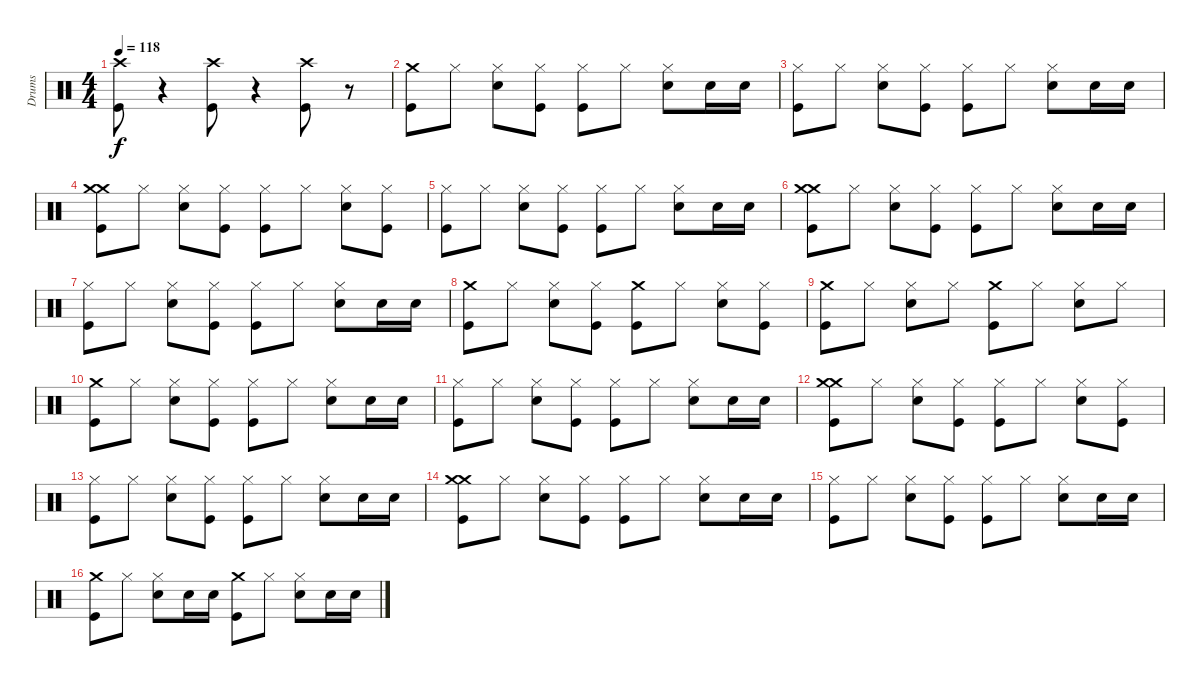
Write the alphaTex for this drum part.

\track ("Drums" "Drums") {instrument percussion}
\staff {score}
\articulation defaults
\ts (4 4)
\tempo 118
\clef neutral
\ks c
("Kick (hit)" "Crash high (hit)").8{dy f} r.4 ("Kick (hit)" "Crash high (hit)").8 r.4 ("Kick (hit)" "Crash high (hit)").8 r.8 |
("Kick (hit)" "Crash medium (hit)").8 "Hi-Hat (closed)".8 ("Snare (hit) 2" "Hi-Hat (closed)").8 ("Kick (hit)" "Hi-Hat (closed)").8 ("Kick (hit)" "Hi-Hat (closed)").8 "Hi-Hat (closed)".8 ("Snare (hit) 2" "Hi-Hat (closed)").8 "Snare (hit) 2".16 "Snare (hit) 2".16 |
("Kick (hit)" "Hi-Hat (closed)").8 "Hi-Hat (closed)".8 ("Snare (hit) 2" "Hi-Hat (closed)").8 ("Kick (hit)" "Hi-Hat (closed)").8 ("Kick (hit)" "Hi-Hat (closed)").8 "Hi-Hat (closed)".8 ("Snare (hit) 2" "Hi-Hat (closed)").8 "Snare (hit) 2".16 "Snare (hit) 2".16 |
("Kick (hit)" "Crash medium (hit)" "Crash medium (hit)").8 "Hi-Hat (closed)".8 ("Snare (hit) 2" "Hi-Hat (closed)").8 ("Kick (hit)" "Hi-Hat (closed)").8 ("Kick (hit)" "Hi-Hat (closed)").8 "Hi-Hat (closed)".8 ("Snare (hit) 2" "Hi-Hat (closed)").8 ("Kick (hit)" "Hi-Hat (closed)").8 |
("Kick (hit)" "Hi-Hat (closed)").8 "Hi-Hat (closed)".8 ("Snare (hit) 2" "Hi-Hat (closed)").8 ("Kick (hit)" "Hi-Hat (closed)").8 ("Kick (hit)" "Hi-Hat (closed)").8 "Hi-Hat (closed)".8 ("Snare (hit) 2" "Hi-Hat (closed)").8 "Snare (hit) 2".16 "Snare (hit) 2".16 |
("Kick (hit)" "Crash medium (hit)" "Crash medium (hit)").8 "Hi-Hat (closed)".8 ("Snare (hit) 2" "Hi-Hat (closed)").8 ("Kick (hit)" "Hi-Hat (closed)").8 ("Kick (hit)" "Hi-Hat (closed)").8 "Hi-Hat (closed)".8 ("Snare (hit) 2" "Hi-Hat (closed)").8 "Snare (hit) 2".16 "Snare (hit) 2".16 |
("Kick (hit)" "Hi-Hat (closed)").8 "Hi-Hat (closed)".8 ("Snare (hit) 2" "Hi-Hat (closed)").8 ("Kick (hit)" "Hi-Hat (closed)").8 ("Kick (hit)" "Hi-Hat (closed)").8 "Hi-Hat (closed)".8 ("Snare (hit) 2" "Hi-Hat (closed)").8 "Snare (hit) 2".16 "Snare (hit) 2".16 |
("Kick (hit)" "Crash medium (hit)").8 "Hi-Hat (closed)".8 ("Snare (hit) 2" "Hi-Hat (closed)").8 ("Kick (hit)" "Hi-Hat (closed)").8 ("Kick (hit)" "Crash medium (hit)").8 "Hi-Hat (closed)".8 ("Snare (hit) 2" "Hi-Hat (closed)").8 ("Kick (hit)" "Hi-Hat (closed)").8 |
("Kick (hit)" "Crash medium (hit)").8 "Hi-Hat (closed)".8 ("Snare (hit) 2" "Hi-Hat (closed)").8 "Hi-Hat (closed)".8 ("Kick (hit)" "Crash medium (hit)").8 "Hi-Hat (closed)".8 ("Snare (hit) 2" "Hi-Hat (closed)").8 "Hi-Hat (closed)".8 |
("Kick (hit)" "Crash medium (hit)").8 "Hi-Hat (closed)".8 ("Snare (hit) 2" "Hi-Hat (closed)").8 ("Kick (hit)" "Hi-Hat (closed)").8 ("Kick (hit)" "Hi-Hat (closed)").8 "Hi-Hat (closed)".8 ("Snare (hit) 2" "Hi-Hat (closed)").8 "Snare (hit) 2".16 "Snare (hit) 2".16 |
("Kick (hit)" "Hi-Hat (closed)").8 "Hi-Hat (closed)".8 ("Snare (hit) 2" "Hi-Hat (closed)").8 ("Kick (hit)" "Hi-Hat (closed)").8 ("Kick (hit)" "Hi-Hat (closed)").8 "Hi-Hat (closed)".8 ("Snare (hit) 2" "Hi-Hat (closed)").8 "Snare (hit) 2".16 "Snare (hit) 2".16 |
("Kick (hit)" "Crash medium (hit)" "Crash medium (hit)").8 "Hi-Hat (closed)".8 ("Snare (hit) 2" "Hi-Hat (closed)").8 ("Kick (hit)" "Hi-Hat (closed)").8 ("Kick (hit)" "Hi-Hat (closed)").8 "Hi-Hat (closed)".8 ("Snare (hit) 2" "Hi-Hat (closed)").8 ("Kick (hit)" "Hi-Hat (closed)").8 |
("Kick (hit)" "Hi-Hat (closed)").8 "Hi-Hat (closed)".8 ("Snare (hit) 2" "Hi-Hat (closed)").8 ("Kick (hit)" "Hi-Hat (closed)").8 ("Kick (hit)" "Hi-Hat (closed)").8 "Hi-Hat (closed)".8 ("Snare (hit) 2" "Hi-Hat (closed)").8 "Snare (hit) 2".16 "Snare (hit) 2".16 |
("Kick (hit)" "Crash medium (hit)" "Crash medium (hit)").8 "Hi-Hat (closed)".8 ("Snare (hit) 2" "Hi-Hat (closed)").8 ("Kick (hit)" "Hi-Hat (closed)").8 ("Kick (hit)" "Hi-Hat (closed)").8 "Hi-Hat (closed)".8 ("Snare (hit) 2" "Hi-Hat (closed)").8 "Snare (hit) 2".16 "Snare (hit) 2".16 |
("Kick (hit)" "Hi-Hat (closed)").8 "Hi-Hat (closed)".8 ("Snare (hit) 2" "Hi-Hat (closed)").8 ("Kick (hit)" "Hi-Hat (closed)").8 ("Kick (hit)" "Hi-Hat (closed)").8 "Hi-Hat (closed)".8 ("Snare (hit) 2" "Hi-Hat (closed)").8 "Snare (hit) 2".16 "Snare (hit) 2".16 |
("Kick (hit)" "Crash medium (hit)").8 "Hi-Hat (closed)".8 ("Snare (hit) 2" "Hi-Hat (closed)").8 "Snare (hit) 2".16 "Snare (hit) 2".16 ("Kick (hit)" "Crash medium (hit)").8 "Hi-Hat (closed)".8 ("Snare (hit) 2" "Hi-Hat (closed)").8 "Snare (hit) 2".16 "Snare (hit) 2".16
